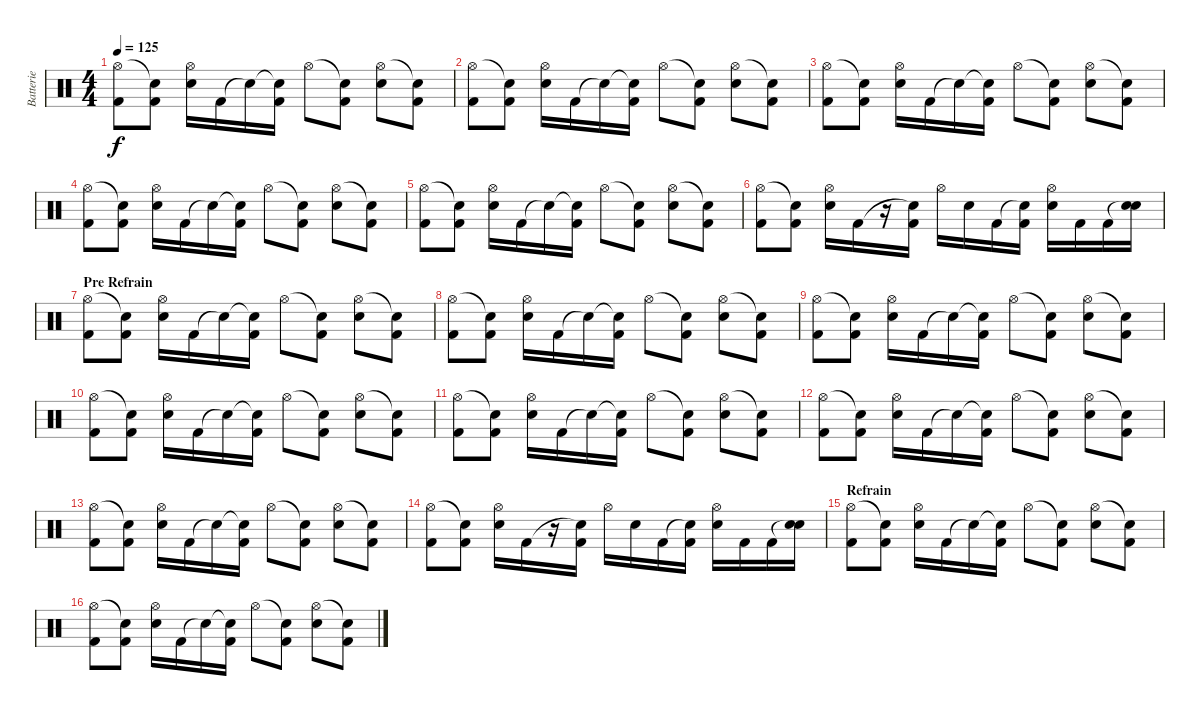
\track ("Batterie" "Batterie") {instrument percussion}
\staff {score}
\articulation defaults
\ts (4 4)
\tempo 125
\clef neutral
\ks c
("Hi-Hat (open)" "Kick (hit) 2").8{dy f} ("Snare (hit)"{t} "Kick (hit) 2").8 ("Hi-Hat (open)" "Electric Snare (hit)").16 "Kick (hit) 2".16 "Snare (hit)"{t}.16 ("Snare (hit)"{t} "Kick (hit) 2").16 "Hi-Hat (open)".8 ("Snare (hit)"{t} "Kick (hit) 2").8 ("Hi-Hat (open)" "Electric Snare (hit)").8 ("Snare (hit)"{t} "Kick (hit) 2").8 |
("Hi-Hat (open)" "Kick (hit) 2").8 ("Snare (hit)"{t} "Kick (hit) 2").8 ("Hi-Hat (open)" "Electric Snare (hit)").16 "Kick (hit) 2".16 "Snare (hit)"{t}.16 ("Snare (hit)"{t} "Kick (hit) 2").16 "Hi-Hat (open)".8 ("Snare (hit)"{t} "Kick (hit) 2").8 ("Hi-Hat (open)" "Electric Snare (hit)").8 ("Snare (hit)"{t} "Kick (hit) 2").8 |
("Hi-Hat (open)" "Kick (hit) 2").8 ("Snare (hit)"{t} "Kick (hit) 2").8 ("Hi-Hat (open)" "Electric Snare (hit)").16 "Kick (hit) 2".16 "Snare (hit)"{t}.16 ("Snare (hit)"{t} "Kick (hit) 2").16 "Hi-Hat (open)".8 ("Snare (hit)"{t} "Kick (hit) 2").8 ("Hi-Hat (open)" "Electric Snare (hit)").8 ("Snare (hit)"{t} "Kick (hit) 2").8 |
("Hi-Hat (open)" "Kick (hit) 2").8 ("Snare (hit)"{t} "Kick (hit) 2").8 ("Hi-Hat (open)" "Electric Snare (hit)").16 "Kick (hit) 2".16 "Snare (hit)"{t}.16 ("Snare (hit)"{t} "Kick (hit) 2").16 "Hi-Hat (open)".8 ("Snare (hit)"{t} "Kick (hit) 2").8 ("Hi-Hat (open)" "Electric Snare (hit)").8 ("Snare (hit)"{t} "Kick (hit) 2").8 |
("Hi-Hat (open)" "Kick (hit) 2").8 ("Snare (hit)"{t} "Kick (hit) 2").8 ("Hi-Hat (open)" "Electric Snare (hit)").16 "Kick (hit) 2".16 "Snare (hit)"{t}.16 ("Snare (hit)"{t} "Kick (hit) 2").16 "Hi-Hat (open)".8 ("Snare (hit)"{t} "Kick (hit) 2").8 ("Hi-Hat (open)" "Electric Snare (hit)").8 ("Snare (hit)"{t} "Kick (hit) 2").8 |
("Hi-Hat (open)" "Kick (hit) 2").8 ("Snare (hit)"{t} "Kick (hit) 2").8 ("Hi-Hat (open)" "Electric Snare (hit)").16 "Kick (hit) 2".16 r.16 ("Snare (hit)"{t} "Kick (hit) 2").16 "Hi-Hat (open)".16 "Electric Snare (hit)".16 "Kick (hit) 2".16 ("Snare (hit)"{t} "Kick (hit) 2").16 ("Hi-Hat (open)" "Electric Snare (hit)").16 "Kick (hit) 2".16 "Kick (hit) 2".16 ("Snare (hit)"{t} "Electric Snare (hit)").16 |
\section ("" "Pre Refrain")
("Hi-Hat (open)" "Kick (hit) 2").8 ("Snare (hit)"{t} "Kick (hit) 2").8 ("Hi-Hat (open)" "Electric Snare (hit)").16 "Kick (hit) 2".16 "Snare (hit)"{t}.16 ("Snare (hit)"{t} "Kick (hit) 2").16 "Hi-Hat (open)".8 ("Snare (hit)"{t} "Kick (hit) 2").8 ("Hi-Hat (open)" "Electric Snare (hit)").8 ("Snare (hit)"{t} "Kick (hit) 2").8 |
("Hi-Hat (open)" "Kick (hit) 2").8 ("Snare (hit)"{t} "Kick (hit) 2").8 ("Hi-Hat (open)" "Electric Snare (hit)").16 "Kick (hit) 2".16 "Snare (hit)"{t}.16 ("Snare (hit)"{t} "Kick (hit) 2").16 "Hi-Hat (open)".8 ("Snare (hit)"{t} "Kick (hit) 2").8 ("Hi-Hat (open)" "Electric Snare (hit)").8 ("Snare (hit)"{t} "Kick (hit) 2").8 |
("Hi-Hat (open)" "Kick (hit) 2").8 ("Snare (hit)"{t} "Kick (hit) 2").8 ("Hi-Hat (open)" "Electric Snare (hit)").16 "Kick (hit) 2".16 "Snare (hit)"{t}.16 ("Snare (hit)"{t} "Kick (hit) 2").16 "Hi-Hat (open)".8 ("Snare (hit)"{t} "Kick (hit) 2").8 ("Hi-Hat (open)" "Electric Snare (hit)").8 ("Snare (hit)"{t} "Kick (hit) 2").8 |
("Hi-Hat (open)" "Kick (hit) 2").8 ("Snare (hit)"{t} "Kick (hit) 2").8 ("Hi-Hat (open)" "Electric Snare (hit)").16 "Kick (hit) 2".16 "Snare (hit)"{t}.16 ("Snare (hit)"{t} "Kick (hit) 2").16 "Hi-Hat (open)".8 ("Snare (hit)"{t} "Kick (hit) 2").8 ("Hi-Hat (open)" "Electric Snare (hit)").8 ("Snare (hit)"{t} "Kick (hit) 2").8 |
("Hi-Hat (open)" "Kick (hit) 2").8 ("Snare (hit)"{t} "Kick (hit) 2").8 ("Hi-Hat (open)" "Electric Snare (hit)").16 "Kick (hit) 2".16 "Snare (hit)"{t}.16 ("Snare (hit)"{t} "Kick (hit) 2").16 "Hi-Hat (open)".8 ("Snare (hit)"{t} "Kick (hit) 2").8 ("Hi-Hat (open)" "Electric Snare (hit)").8 ("Snare (hit)"{t} "Kick (hit) 2").8 |
("Hi-Hat (open)" "Kick (hit) 2").8 ("Snare (hit)"{t} "Kick (hit) 2").8 ("Hi-Hat (open)" "Electric Snare (hit)").16 "Kick (hit) 2".16 "Snare (hit)"{t}.16 ("Snare (hit)"{t} "Kick (hit) 2").16 "Hi-Hat (open)".8 ("Snare (hit)"{t} "Kick (hit) 2").8 ("Hi-Hat (open)" "Electric Snare (hit)").8 ("Snare (hit)"{t} "Kick (hit) 2").8 |
("Hi-Hat (open)" "Kick (hit) 2").8 ("Snare (hit)"{t} "Kick (hit) 2").8 ("Hi-Hat (open)" "Electric Snare (hit)").16 "Kick (hit) 2".16 "Snare (hit)"{t}.16 ("Snare (hit)"{t} "Kick (hit) 2").16 "Hi-Hat (open)".8 ("Snare (hit)"{t} "Kick (hit) 2").8 ("Hi-Hat (open)" "Electric Snare (hit)").8 ("Snare (hit)"{t} "Kick (hit) 2").8 |
("Hi-Hat (open)" "Kick (hit) 2").8 ("Snare (hit)"{t} "Kick (hit) 2").8 ("Hi-Hat (open)" "Electric Snare (hit)").16 "Kick (hit) 2".16 r.16 ("Snare (hit)"{t} "Kick (hit) 2").16 "Hi-Hat (open)".16 "Electric Snare (hit)".16 "Kick (hit) 2".16 ("Snare (hit)"{t} "Kick (hit) 2").16 ("Hi-Hat (open)" "Electric Snare (hit)").16 "Kick (hit) 2".16 "Kick (hit) 2".16 ("Snare (hit)"{t} "Electric Snare (hit)").16 |
\section ("" "Refrain")
("Hi-Hat (open)" "Kick (hit) 2").8 ("Snare (hit)"{t} "Kick (hit) 2").8 ("Hi-Hat (open)" "Electric Snare (hit)").16 "Kick (hit) 2".16 "Snare (hit)"{t}.16 ("Snare (hit)"{t} "Kick (hit) 2").16 "Hi-Hat (open)".8 ("Snare (hit)"{t} "Kick (hit) 2").8 ("Hi-Hat (open)" "Electric Snare (hit)").8 ("Snare (hit)"{t} "Kick (hit) 2").8 |
("Hi-Hat (open)" "Kick (hit) 2").8 ("Snare (hit)"{t} "Kick (hit) 2").8 ("Hi-Hat (open)" "Electric Snare (hit)").16 "Kick (hit) 2".16 "Snare (hit)"{t}.16 ("Snare (hit)"{t} "Kick (hit) 2").16 "Hi-Hat (open)".8 ("Snare (hit)"{t} "Kick (hit) 2").8 ("Hi-Hat (open)" "Electric Snare (hit)").8 ("Snare (hit)"{t} "Kick (hit) 2").8
